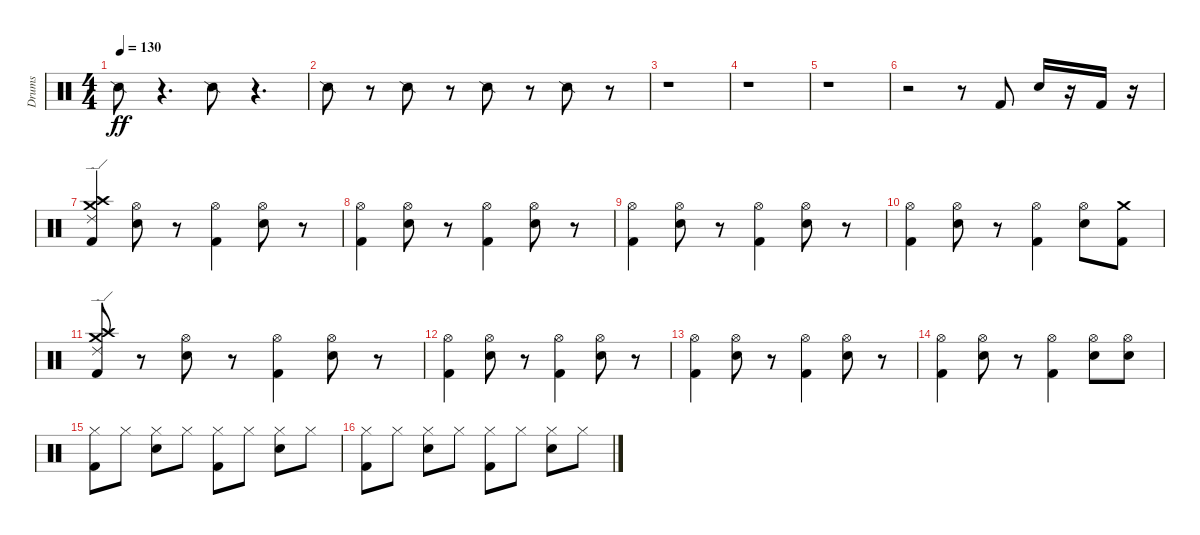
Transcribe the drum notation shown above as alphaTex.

\track ("Drums" "Drums") {instrument percussion}
\staff {score}
\articulation defaults
\ts (4 4)
\tempo 130
\clef neutral
\ks c "Snare (side stick) 2".8{dy ff}
r.4{d} "Snare (side stick) 2".8 r.4{d} |
"Snare (side stick) 2".8 r.8 "Snare (side stick) 2".8 r.8 "Snare (side stick) 2".8 r.8 "Snare (side stick) 2".8 r.8 |
r.1 |
r.1 |
r.1 |
r.2 r.8 "Kick (hit) 2".8 "Snare (hit) 2".16 r.16 "Kick (hit) 2".16 r.16 |
("Kick (hit) 2" "Crash high (hit)" "Crash medium (hit)" "Ride (edge) 2").4 ("Snare (hit) 2" "Hi-Hat (open)").8 r.8 ("Kick (hit) 2" "Hi-Hat (open)").4 ("Snare (hit) 2" "Hi-Hat (open)").8 r.8 |
("Kick (hit) 2" "Hi-Hat (open)").4 ("Snare (hit) 2" "Hi-Hat (open)").8 r.8 ("Kick (hit) 2" "Hi-Hat (open)").4 ("Snare (hit) 2" "Hi-Hat (open)").8 r.8 |
("Kick (hit) 2" "Hi-Hat (open)").4 ("Snare (hit) 2" "Hi-Hat (open)").8 r.8 ("Kick (hit) 2" "Hi-Hat (open)").4 ("Snare (hit) 2" "Hi-Hat (open)").8 r.8 |
("Kick (hit) 2" "Hi-Hat (open)").4 ("Snare (hit) 2" "Hi-Hat (open)").8 r.8 ("Kick (hit) 2" "Hi-Hat (open)").4 ("Snare (hit) 2" "Hi-Hat (open)").8 ("Kick (hit) 2" "Crash medium (hit)").8 |
("Kick (hit) 2" "Crash high (hit)" "Crash medium (hit)" "Ride (edge) 2").8 r.8 ("Snare (hit) 2" "Hi-Hat (open)").8 r.8 ("Kick (hit) 2" "Hi-Hat (open)").4 ("Snare (hit) 2" "Hi-Hat (open)").8 r.8 |
("Kick (hit) 2" "Hi-Hat (open)").4 ("Snare (hit) 2" "Hi-Hat (open)").8 r.8 ("Kick (hit) 2" "Hi-Hat (open)").4 ("Snare (hit) 2" "Hi-Hat (open)").8 r.8 |
("Kick (hit) 2" "Hi-Hat (open)").4 ("Snare (hit) 2" "Hi-Hat (open)").8 r.8 ("Kick (hit) 2" "Hi-Hat (open)").4 ("Snare (hit) 2" "Hi-Hat (open)").8 r.8 |
("Kick (hit) 2" "Hi-Hat (open)").4 ("Snare (hit) 2" "Hi-Hat (open)").8 r.8 ("Kick (hit) 2" "Hi-Hat (open)").4 ("Snare (hit) 2" "Hi-Hat (open)").8 ("Snare (hit) 2" "Hi-Hat (open)").8 |
("Kick (hit) 2" "Hi-Hat (closed)").8 "Hi-Hat (closed)".8 ("Snare (hit) 2" "Hi-Hat (closed)").8 "Hi-Hat (closed)".8 ("Kick (hit) 2" "Hi-Hat (closed)").8 "Hi-Hat (closed)".8 ("Snare (hit) 2" "Hi-Hat (closed)").8 "Hi-Hat (closed)".8 |
("Kick (hit) 2" "Hi-Hat (closed)").8 "Hi-Hat (closed)".8 ("Snare (hit) 2" "Hi-Hat (closed)").8 "Hi-Hat (closed)".8 ("Kick (hit) 2" "Hi-Hat (closed)").8 "Hi-Hat (closed)".8 ("Snare (hit) 2" "Hi-Hat (closed)").8 "Hi-Hat (closed)".8
